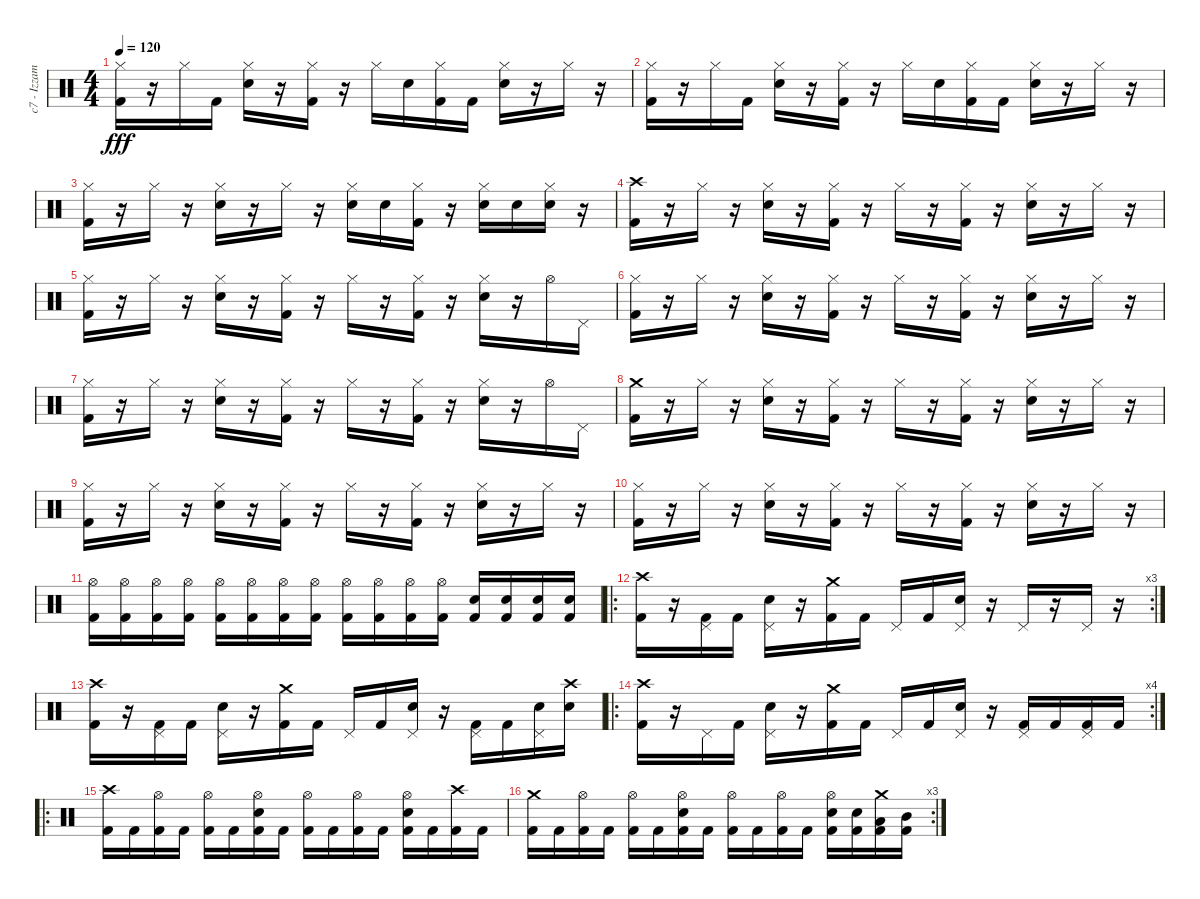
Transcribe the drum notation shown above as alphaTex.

\track ("c7 - Izzam - Drums" "c7 - Izzam") {instrument percussion}
\staff {score}
\articulation defaults
\ts (4 4)
\tempo 120
\clef neutral
\ks c
("Hi-Hat (closed)" "Kick (hit) 2").16{dy fff} r.16 "Hi-Hat (closed)".16 "Kick (hit) 2".16 ("Hi-Hat (closed)" "Electric Snare (hit)").16 r.16 ("Hi-Hat (closed)" "Kick (hit) 2").16 r.16 "Hi-Hat (closed)".16 "Electric Snare (hit)".16 ("Hi-Hat (closed)" "Kick (hit) 2").16 "Kick (hit) 2".16 ("Hi-Hat (closed)" "Electric Snare (hit)").16 r.16 "Hi-Hat (closed)".16 r.16 |
("Hi-Hat (closed)" "Kick (hit) 2").16 r.16 "Hi-Hat (closed)".16 "Kick (hit) 2".16 ("Hi-Hat (closed)" "Electric Snare (hit)").16 r.16 ("Hi-Hat (closed)" "Kick (hit) 2").16 r.16 "Hi-Hat (closed)".16 "Electric Snare (hit)".16 ("Hi-Hat (closed)" "Kick (hit) 2").16 "Kick (hit) 2".16 ("Hi-Hat (closed)" "Electric Snare (hit)").16 r.16 "Hi-Hat (closed)".16 r.16 |
("Hi-Hat (closed)" "Kick (hit) 2").16 r.16 "Hi-Hat (closed)".16 r.16 ("Hi-Hat (closed)" "Electric Snare (hit)").16 r.16 "Hi-Hat (closed)".16 r.16 ("Hi-Hat (closed)" "Electric Snare (hit)").16 "Electric Snare (hit)".16 ("Hi-Hat (closed)" "Kick (hit) 2").16 r.16 ("Hi-Hat (closed)" "Electric Snare (hit)").16 "Electric Snare (hit)".16 ("Hi-Hat (closed)" "Electric Snare (hit)").16 r.16 |
("Crash high (hit)" "Kick (hit) 2").16 r.16 "Hi-Hat (closed)".16 r.16 ("Hi-Hat (closed)" "Electric Snare (hit)").16 r.16 ("Hi-Hat (closed)" "Kick (hit) 2").16 r.16 "Hi-Hat (closed)".16 r.16 ("Hi-Hat (closed)" "Kick (hit) 2").16 r.16 ("Hi-Hat (closed)" "Electric Snare (hit)").16 r.16 "Hi-Hat (closed)".16 r.16 |
("Hi-Hat (closed)" "Kick (hit) 2").16 r.16 "Hi-Hat (closed)".16 r.16 ("Hi-Hat (closed)" "Electric Snare (hit)").16 r.16 ("Hi-Hat (closed)" "Kick (hit) 2").16 r.16 "Hi-Hat (closed)".16 r.16 ("Hi-Hat (closed)" "Kick (hit) 2").16 r.16 ("Hi-Hat (closed)" "Electric Snare (hit)").16 r.16 "Hi-Hat (open)".16 "Pedal Hi-Hat (hit)".16 |
("Hi-Hat (closed)" "Kick (hit) 2").16 r.16 "Hi-Hat (closed)".16 r.16 ("Hi-Hat (closed)" "Electric Snare (hit)").16 r.16 ("Hi-Hat (closed)" "Kick (hit) 2").16 r.16 "Hi-Hat (closed)".16 r.16 ("Hi-Hat (closed)" "Kick (hit) 2").16 r.16 ("Hi-Hat (closed)" "Electric Snare (hit)").16 r.16 "Hi-Hat (closed)".16 r.16 |
("Hi-Hat (closed)" "Kick (hit) 2").16 r.16 "Hi-Hat (closed)".16 r.16 ("Hi-Hat (closed)" "Electric Snare (hit)").16 r.16 ("Hi-Hat (closed)" "Kick (hit) 2").16 r.16 "Hi-Hat (closed)".16 r.16 ("Hi-Hat (closed)" "Kick (hit) 2").16 r.16 ("Hi-Hat (closed)" "Electric Snare (hit)").16 r.16 "Hi-Hat (open)".16 "Pedal Hi-Hat (hit)".16 |
("Crash medium (hit)" "Kick (hit) 2").16 r.16 "Hi-Hat (closed)".16 r.16 ("Hi-Hat (closed)" "Electric Snare (hit)").16 r.16 ("Hi-Hat (closed)" "Kick (hit) 2").16 r.16 "Hi-Hat (closed)".16 r.16 ("Hi-Hat (closed)" "Kick (hit) 2").16 r.16 ("Hi-Hat (closed)" "Electric Snare (hit)").16 r.16 "Hi-Hat (closed)".16 r.16 |
("Hi-Hat (closed)" "Kick (hit) 2").16 r.16 "Hi-Hat (closed)".16 r.16 ("Hi-Hat (closed)" "Electric Snare (hit)").16 r.16 ("Hi-Hat (closed)" "Kick (hit) 2").16 r.16 "Hi-Hat (closed)".16 r.16 ("Hi-Hat (closed)" "Kick (hit) 2").16 r.16 ("Hi-Hat (closed)" "Electric Snare (hit)").16 r.16 "Hi-Hat (closed)".16 r.16 |
("Hi-Hat (closed)" "Kick (hit) 2").16 r.16 "Hi-Hat (closed)".16 r.16 ("Hi-Hat (closed)" "Electric Snare (hit)").16 r.16 ("Hi-Hat (closed)" "Kick (hit) 2").16 r.16 "Hi-Hat (closed)".16 r.16 ("Hi-Hat (closed)" "Kick (hit) 2").16 r.16 ("Hi-Hat (closed)" "Electric Snare (hit)").16 r.16 "Hi-Hat (closed)".16 r.16 |
("Hi-Hat (open)" "Kick (hit) 2").16 ("Hi-Hat (open)" "Kick (hit) 2").16 ("Hi-Hat (open)" "Kick (hit) 2").16 ("Hi-Hat (open)" "Kick (hit) 2").16 ("Hi-Hat (open)" "Kick (hit) 2").16 ("Hi-Hat (open)" "Kick (hit) 2").16 ("Hi-Hat (open)" "Kick (hit) 2").16 ("Hi-Hat (open)" "Kick (hit) 2").16 ("Hi-Hat (open)" "Kick (hit) 2").16 ("Hi-Hat (open)" "Kick (hit) 2").16 ("Hi-Hat (open)" "Kick (hit) 2").16 ("Hi-Hat (open)" "Kick (hit) 2").16 ("Electric Snare (hit)" "Kick (hit) 2").16 ("Electric Snare (hit)" "Kick (hit) 2").16 ("Electric Snare (hit)" "Kick (hit) 2").16 ("Electric Snare (hit)" "Kick (hit) 2").16 |
\ro
\rc 3
("Crash high (hit)" "Kick (hit) 2").16 r.16 ("Pedal Hi-Hat (hit)" "Kick (hit) 2").16 "Kick (hit) 2".16 ("Pedal Hi-Hat (hit)" "Electric Snare (hit)").16 r.16 ("Crash medium (hit)" "Kick (hit) 2").16 "Kick (hit) 2".16 "Pedal Hi-Hat (hit)".16 "Kick (hit) 2".16 ("Pedal Hi-Hat (hit)" "Electric Snare (hit)").16 r.16 "Pedal Hi-Hat (hit)".16 r.16 "Pedal Hi-Hat (hit)".16 r.16 |
("Crash high (hit)" "Kick (hit) 2").16 r.16 ("Pedal Hi-Hat (hit)" "Kick (hit) 2").16 "Kick (hit) 2".16 ("Pedal Hi-Hat (hit)" "Electric Snare (hit)").16 r.16 ("Crash medium (hit)" "Kick (hit) 2").16 "Kick (hit) 2".16 "Pedal Hi-Hat (hit)".16 "Kick (hit) 2".16 ("Pedal Hi-Hat (hit)" "Electric Snare (hit)").16 r.16 ("Pedal Hi-Hat (hit)" "Kick (hit) 2").16 "Kick (hit) 2".16 ("Pedal Hi-Hat (hit)" "Electric Snare (hit)").16 ("Crash high (hit)" "Electric Snare (hit)").16 |
\ro
\rc 4
("Crash high (hit)" "Kick (hit) 2").16 r.16 "Pedal Hi-Hat (hit)".16 "Kick (hit) 2".16 ("Pedal Hi-Hat (hit)" "Electric Snare (hit)").16 r.16 ("Crash medium (hit)" "Kick (hit) 2").16 "Kick (hit) 2".16 "Pedal Hi-Hat (hit)".16 "Kick (hit) 2".16 ("Pedal Hi-Hat (hit)" "Electric Snare (hit)").16 r.16 ("Pedal Hi-Hat (hit)" "Kick (hit) 2").16 "Kick (hit) 2".16 ("Pedal Hi-Hat (hit)" "Kick (hit) 2").16 "Kick (hit) 2".16 |
\ro
("Crash high (hit)" "Kick (hit) 2").16 "Kick (hit) 2".16 ("Hi-Hat (open)" "Kick (hit) 2").16 "Kick (hit) 2".16 ("Hi-Hat (open)" "Kick (hit) 2").16 "Kick (hit) 2".16 ("Hi-Hat (open)" "Electric Snare (hit)" "Kick (hit) 2").16 "Kick (hit) 2".16 ("Hi-Hat (open)" "Kick (hit) 2").16 "Kick (hit) 2".16 ("Hi-Hat (open)" "Kick (hit) 2").16 "Kick (hit) 2".16 ("Hi-Hat (open)" "Electric Snare (hit)" "Kick (hit) 2").16 "Kick (hit) 2".16 ("Crash high (hit)" "Kick (hit) 2").16 "Kick (hit) 2".16 |
\rc 3
("Crash medium (hit)" "Kick (hit) 2").16 "Kick (hit) 2".16 ("Hi-Hat (open)" "Kick (hit) 2").16 "Kick (hit) 2".16 ("Hi-Hat (open)" "Kick (hit) 2").16 "Kick (hit) 2".16 ("Hi-Hat (open)" "Electric Snare (hit)" "Kick (hit) 2").16 "Kick (hit) 2".16 ("Hi-Hat (open)" "Kick (hit) 2").16 "Kick (hit) 2".16 ("Hi-Hat (open)" "Kick (hit) 2").16 "Kick (hit) 2".16 ("Hi-Hat (open)" "Electric Snare (hit)" "Kick (hit) 2").16 ("Electric Snare (hit)" "Kick (hit) 2").16 ("Crash medium (hit)" "Low Tom (hit)" "Kick (hit) 2").16 ("Mid Tom (hit)" "Kick (hit) 2").16
